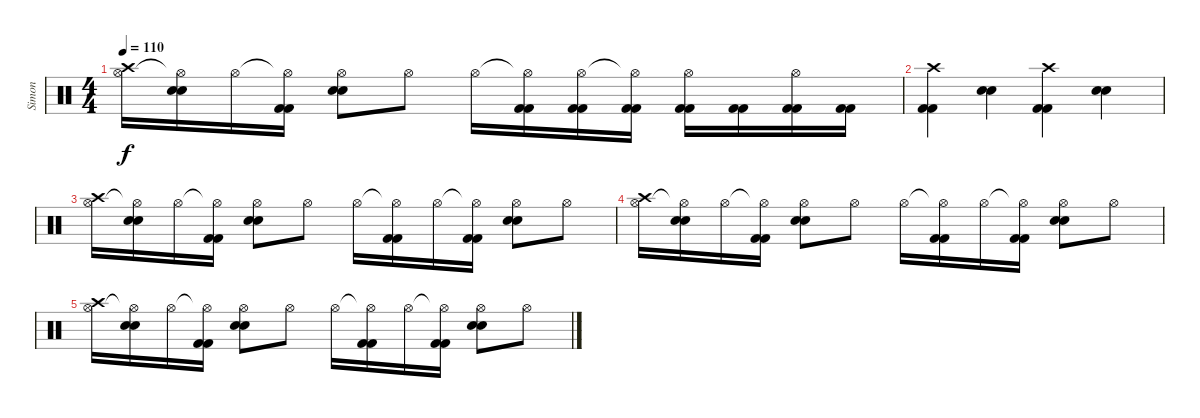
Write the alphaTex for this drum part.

\track ("Simon" "Simon") {instrument percussion}
\staff {score}
\articulation defaults
\ts (4 4)
\tempo 110
\clef neutral
\ks c
("Hi-Hat (open)" "Crash high (hit)").16{dy f} ("Hi-Hat (open)"{t} "Electric Snare (hit)" "Electric Snare (hit)").16 "Hi-Hat (open)".16 ("Hi-Hat (open)"{t} "Kick (hit) 2" "Kick (hit) 2").16 ("Hi-Hat (open)" "Electric Snare (hit)" "Electric Snare (hit)").8 "Hi-Hat (open)".8 "Hi-Hat (open)".16 ("Hi-Hat (open)"{t} "Kick (hit) 2" "Kick (hit) 2").16 ("Hi-Hat (open)" "Kick (hit) 2" "Kick (hit) 2").16 ("Hi-Hat (open)"{t} "Kick (hit) 2" "Kick (hit) 2").16 ("Hi-Hat (open)" "Kick (hit) 2" "Kick (hit) 2").16 ("Kick (hit) 2" "Kick (hit) 2").16 ("Hi-Hat (open)" "Kick (hit) 2" "Kick (hit) 2").16 ("Kick (hit) 2" "Kick (hit) 2").16 |
("Crash high (hit)" "Kick (hit) 2" "Kick (hit) 2").4 ("Electric Snare (hit)" "Electric Snare (hit)").4 ("Crash high (hit)" "Kick (hit) 2" "Kick (hit) 2").4 ("Electric Snare (hit)" "Electric Snare (hit)").4 |
("Hi-Hat (open)" "Crash high (hit)").16 ("Hi-Hat (open)"{t} "Electric Snare (hit)" "Electric Snare (hit)").16 "Hi-Hat (open)".16 ("Hi-Hat (open)"{t} "Kick (hit) 2" "Kick (hit) 2").16 ("Hi-Hat (open)" "Electric Snare (hit)" "Electric Snare (hit)").8 "Hi-Hat (open)".8 "Hi-Hat (open)".16 ("Hi-Hat (open)"{t} "Kick (hit) 2" "Kick (hit) 2").16 "Hi-Hat (open)".16 ("Hi-Hat (open)"{t} "Kick (hit) 2" "Kick (hit) 2").16 ("Hi-Hat (open)" "Electric Snare (hit)" "Electric Snare (hit)").8 "Hi-Hat (open)".8 |
("Hi-Hat (open)" "Crash high (hit)").16 ("Hi-Hat (open)"{t} "Electric Snare (hit)" "Electric Snare (hit)").16 "Hi-Hat (open)".16 ("Hi-Hat (open)"{t} "Kick (hit) 2" "Kick (hit) 2").16 ("Hi-Hat (open)" "Electric Snare (hit)" "Electric Snare (hit)").8 "Hi-Hat (open)".8 "Hi-Hat (open)".16 ("Hi-Hat (open)"{t} "Kick (hit) 2" "Kick (hit) 2").16 "Hi-Hat (open)".16 ("Hi-Hat (open)"{t} "Kick (hit) 2" "Kick (hit) 2").16 ("Hi-Hat (open)" "Electric Snare (hit)" "Electric Snare (hit)").8 "Hi-Hat (open)".8 |
("Hi-Hat (open)" "Crash high (hit)").16 ("Hi-Hat (open)"{t} "Electric Snare (hit)" "Electric Snare (hit)").16 "Hi-Hat (open)".16 ("Hi-Hat (open)"{t} "Kick (hit) 2" "Kick (hit) 2").16 ("Hi-Hat (open)" "Electric Snare (hit)" "Electric Snare (hit)").8 "Hi-Hat (open)".8 "Hi-Hat (open)".16 ("Hi-Hat (open)"{t} "Kick (hit) 2" "Kick (hit) 2").16 "Hi-Hat (open)".16 ("Hi-Hat (open)"{t} "Kick (hit) 2" "Kick (hit) 2").16 ("Hi-Hat (open)" "Electric Snare (hit)" "Electric Snare (hit)").8 "Hi-Hat (open)".8
